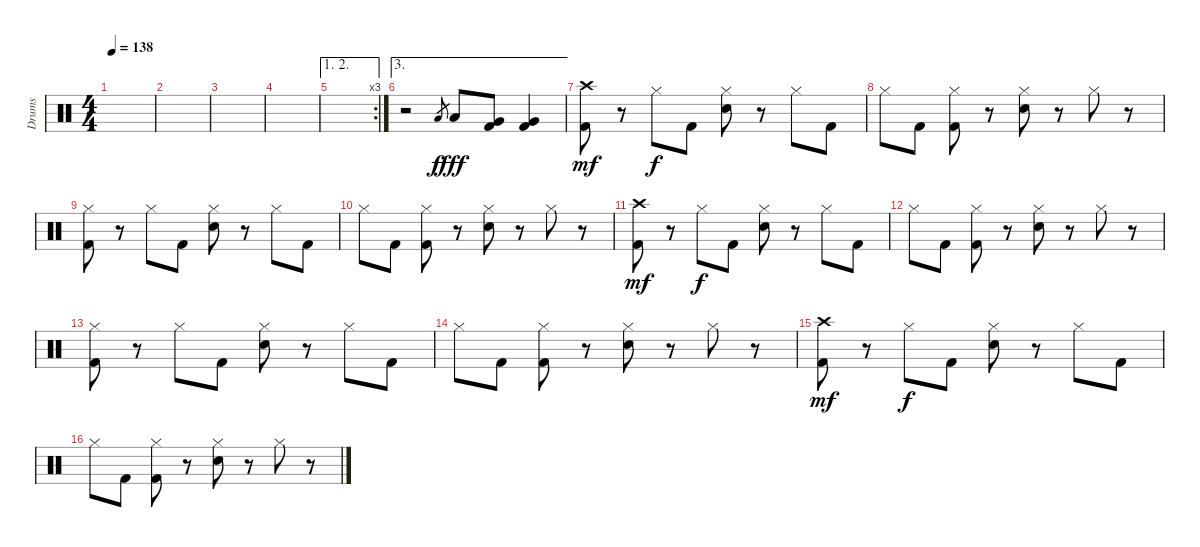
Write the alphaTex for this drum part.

\track ("Drums" "Drums") {instrument percussion}
\staff {score}
\articulation defaults
\ts (4 4)
\tempo 138
\clef neutral
\ks c
|
|
|
|
\ae (1 2)
\rc 3
|
\ae 3
r.2 "Low Tom (hit)".8{gr} "Low Tom (hit)".8{dy fff} ("Very Low Tom (hit)" "Kick (hit) 2").8 ("Very Low Tom (hit)" "Kick (hit) 2").4 |
("Crash high (hit)" "Kick (hit) 2").8{dy mf} r.8 "Hi-Hat (closed)".8{dy f} "Kick (hit) 2".8 ("Hi-Hat (closed)" "Electric Snare (hit)").8 r.8 "Hi-Hat (closed)".8 "Kick (hit) 2".8 |
"Hi-Hat (closed)".8 "Kick (hit) 2".8 ("Hi-Hat (closed)" "Kick (hit) 2").8 r.8 ("Hi-Hat (closed)" "Electric Snare (hit)").8 r.8 "Hi-Hat (closed)".8 r.8 |
("Hi-Hat (closed)" "Kick (hit) 2").8 r.8 "Hi-Hat (closed)".8 "Kick (hit) 2".8 ("Hi-Hat (closed)" "Electric Snare (hit)").8 r.8 "Hi-Hat (closed)".8 "Kick (hit) 2".8 |
"Hi-Hat (closed)".8 "Kick (hit) 2".8 ("Hi-Hat (closed)" "Kick (hit) 2").8 r.8 ("Hi-Hat (closed)" "Electric Snare (hit)").8 r.8 "Hi-Hat (closed)".8 r.8 |
("Crash high (hit)" "Kick (hit) 2").8{dy mf} r.8 "Hi-Hat (closed)".8{dy f} "Kick (hit) 2".8 ("Hi-Hat (closed)" "Electric Snare (hit)").8 r.8 "Hi-Hat (closed)".8 "Kick (hit) 2".8 |
"Hi-Hat (closed)".8 "Kick (hit) 2".8 ("Hi-Hat (closed)" "Kick (hit) 2").8 r.8 ("Hi-Hat (closed)" "Electric Snare (hit)").8 r.8 "Hi-Hat (closed)".8 r.8 |
("Hi-Hat (closed)" "Kick (hit) 2").8 r.8 "Hi-Hat (closed)".8 "Kick (hit) 2".8 ("Hi-Hat (closed)" "Electric Snare (hit)").8 r.8 "Hi-Hat (closed)".8 "Kick (hit) 2".8 |
"Hi-Hat (closed)".8 "Kick (hit) 2".8 ("Hi-Hat (closed)" "Kick (hit) 2").8 r.8 ("Hi-Hat (closed)" "Electric Snare (hit)").8 r.8 "Hi-Hat (closed)".8 r.8 |
("Crash high (hit)" "Kick (hit) 2").8{dy mf} r.8 "Hi-Hat (closed)".8{dy f} "Kick (hit) 2".8 ("Hi-Hat (closed)" "Electric Snare (hit)").8 r.8 "Hi-Hat (closed)".8 "Kick (hit) 2".8 |
"Hi-Hat (closed)".8 "Kick (hit) 2".8 ("Hi-Hat (closed)" "Kick (hit) 2").8 r.8 ("Hi-Hat (closed)" "Electric Snare (hit)").8 r.8 "Hi-Hat (closed)".8 r.8
